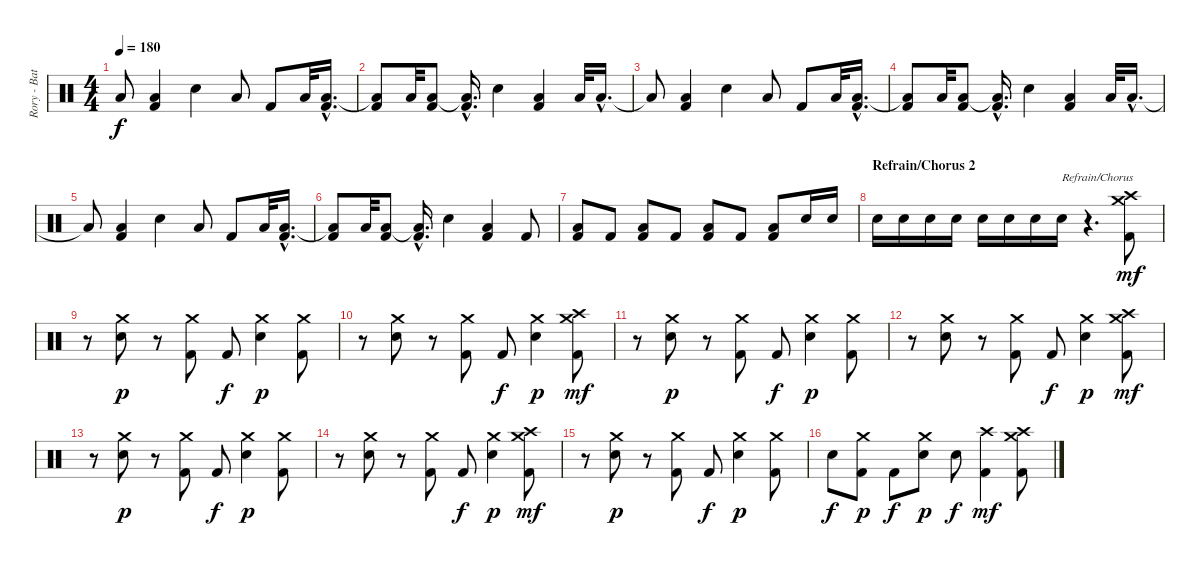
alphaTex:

\track ("Rory - Batterie/Drums" "Rory - Bat") {instrument percussion}
\staff {score}
\articulation defaults
\ts (4 4)
\tempo 180
\clef neutral
\ks c "Low Floor Tom (hit)"{t}.8{dy f}
("Low Floor Tom (hit)" "Kick (hit) 2").4 "Electric Snare (hit)".4 "Low Floor Tom (hit)".8 "Kick (hit) 2".8 "Low Floor Tom (hit)".32 ("Low Floor Tom (hit)"{hac} "Kick (hit) 2"{hac}).16{d} |
("Low Floor Tom (hit)"{t} "Kick (hit) 2").8 "Low Floor Tom (hit)".32 ("Low Floor Tom (hit)" "Kick (hit) 2").8 ("Low Floor Tom (hit)"{hac t} "Kick (hit) 2"{hac}).16{d} "Electric Snare (hit)".4 ("Low Floor Tom (hit)" "Kick (hit) 2").4 "Low Floor Tom (hit)".32 "Low Floor Tom (hit)"{hac}.16{d} |
"Low Floor Tom (hit)"{t}.8 ("Low Floor Tom (hit)" "Kick (hit) 2").4 "Electric Snare (hit)".4 "Low Floor Tom (hit)".8 "Kick (hit) 2".8 "Low Floor Tom (hit)".32 ("Low Floor Tom (hit)"{hac} "Kick (hit) 2"{hac}).16{d} |
("Low Floor Tom (hit)"{t} "Kick (hit) 2").8 "Low Floor Tom (hit)".32 ("Low Floor Tom (hit)" "Kick (hit) 2").8 ("Low Floor Tom (hit)"{hac t} "Kick (hit) 2"{hac}).16{d} "Electric Snare (hit)".4 ("Low Floor Tom (hit)" "Kick (hit) 2").4 "Low Floor Tom (hit)".32 "Low Floor Tom (hit)"{hac}.16{d} |
"Low Floor Tom (hit)"{t}.8 ("Low Floor Tom (hit)" "Kick (hit) 2").4 "Electric Snare (hit)".4 "Low Floor Tom (hit)".8 "Kick (hit) 2".8 "Low Floor Tom (hit)".32 ("Low Floor Tom (hit)"{hac} "Kick (hit) 2"{hac}).16{d} |
("Low Floor Tom (hit)"{t} "Kick (hit) 2").8 "Low Floor Tom (hit)".32 ("Low Floor Tom (hit)" "Kick (hit) 2").8 ("Low Floor Tom (hit)"{hac t} "Kick (hit) 2"{hac}).16{d} "Electric Snare (hit)".4 ("Low Floor Tom (hit)" "Kick (hit) 2").4 "Kick (hit) 2".8 |
("Low Floor Tom (hit)" "Kick (hit) 2").8 "Kick (hit) 2".8 ("Low Floor Tom (hit)" "Kick (hit) 2").8 "Kick (hit) 2".8 ("Low Floor Tom (hit)" "Kick (hit) 2").8 "Kick (hit) 2".8 ("Low Floor Tom (hit)" "Kick (hit) 2").8 "Electric Snare (hit)".16 "Electric Snare (hit)".16 |
\section ("" "Refrain/Chorus 2")
"Electric Snare (hit)".16 "Electric Snare (hit)".16 "Electric Snare (hit)".16 "Electric Snare (hit)".16 "Electric Snare (hit)".16 "Electric Snare (hit)".16 "Electric Snare (hit)".16 "Electric Snare (hit)".16{txt "Refrain/Chorus"} r.4{d} ("Crash medium (hit)" "Crash high (hit)" "Kick (hit) 2").8{dy mf} |
r.8 ("Crash medium (hit)" "Electric Snare (hit)").8{dy p} r.8 ("Crash medium (hit)" "Kick (hit) 2").8 "Kick (hit) 2".8{dy f} ("Crash medium (hit)" "Electric Snare (hit)").4{dy p} ("Crash medium (hit)" "Kick (hit) 2").8 |
r.8 ("Crash medium (hit)" "Electric Snare (hit)").8 r.8 ("Crash medium (hit)" "Kick (hit) 2").8 "Kick (hit) 2".8{dy f} ("Crash medium (hit)" "Electric Snare (hit)").4{dy p} ("Crash medium (hit)" "Crash high (hit)" "Kick (hit) 2").8{dy mf} |
r.8 ("Crash medium (hit)" "Electric Snare (hit)").8{dy p} r.8 ("Crash medium (hit)" "Kick (hit) 2").8 "Kick (hit) 2".8{dy f} ("Crash medium (hit)" "Electric Snare (hit)").4{dy p} ("Crash medium (hit)" "Kick (hit) 2").8 |
r.8 ("Crash medium (hit)" "Electric Snare (hit)").8 r.8 ("Crash medium (hit)" "Kick (hit) 2").8 "Kick (hit) 2".8{dy f} ("Crash medium (hit)" "Electric Snare (hit)").4{dy p} ("Crash medium (hit)" "Crash high (hit)" "Kick (hit) 2").8{dy mf} |
r.8 ("Crash medium (hit)" "Electric Snare (hit)").8{dy p} r.8 ("Crash medium (hit)" "Kick (hit) 2").8 "Kick (hit) 2".8{dy f} ("Crash medium (hit)" "Electric Snare (hit)").4{dy p} ("Crash medium (hit)" "Kick (hit) 2").8 |
r.8 ("Crash medium (hit)" "Electric Snare (hit)").8 r.8 ("Crash medium (hit)" "Kick (hit) 2").8 "Kick (hit) 2".8{dy f} ("Crash medium (hit)" "Electric Snare (hit)").4{dy p} ("Crash medium (hit)" "Crash high (hit)" "Kick (hit) 2").8{dy mf} |
r.8 ("Crash medium (hit)" "Electric Snare (hit)").8{dy p} r.8 ("Crash medium (hit)" "Kick (hit) 2").8 "Kick (hit) 2".8{dy f} ("Crash medium (hit)" "Electric Snare (hit)").4{dy p} ("Crash medium (hit)" "Kick (hit) 2").8 |
"Electric Snare (hit)".8{dy f} ("Crash medium (hit)" "Kick (hit) 2").8{dy p} "Kick (hit) 2".8{dy f} ("Crash medium (hit)" "Electric Snare (hit)").8{dy p} "Electric Snare (hit)".8{dy f} ("Crash high (hit)" "Kick (hit) 2").4{dy mf} ("Crash medium (hit)" "Crash high (hit)" "Kick (hit) 2").8
